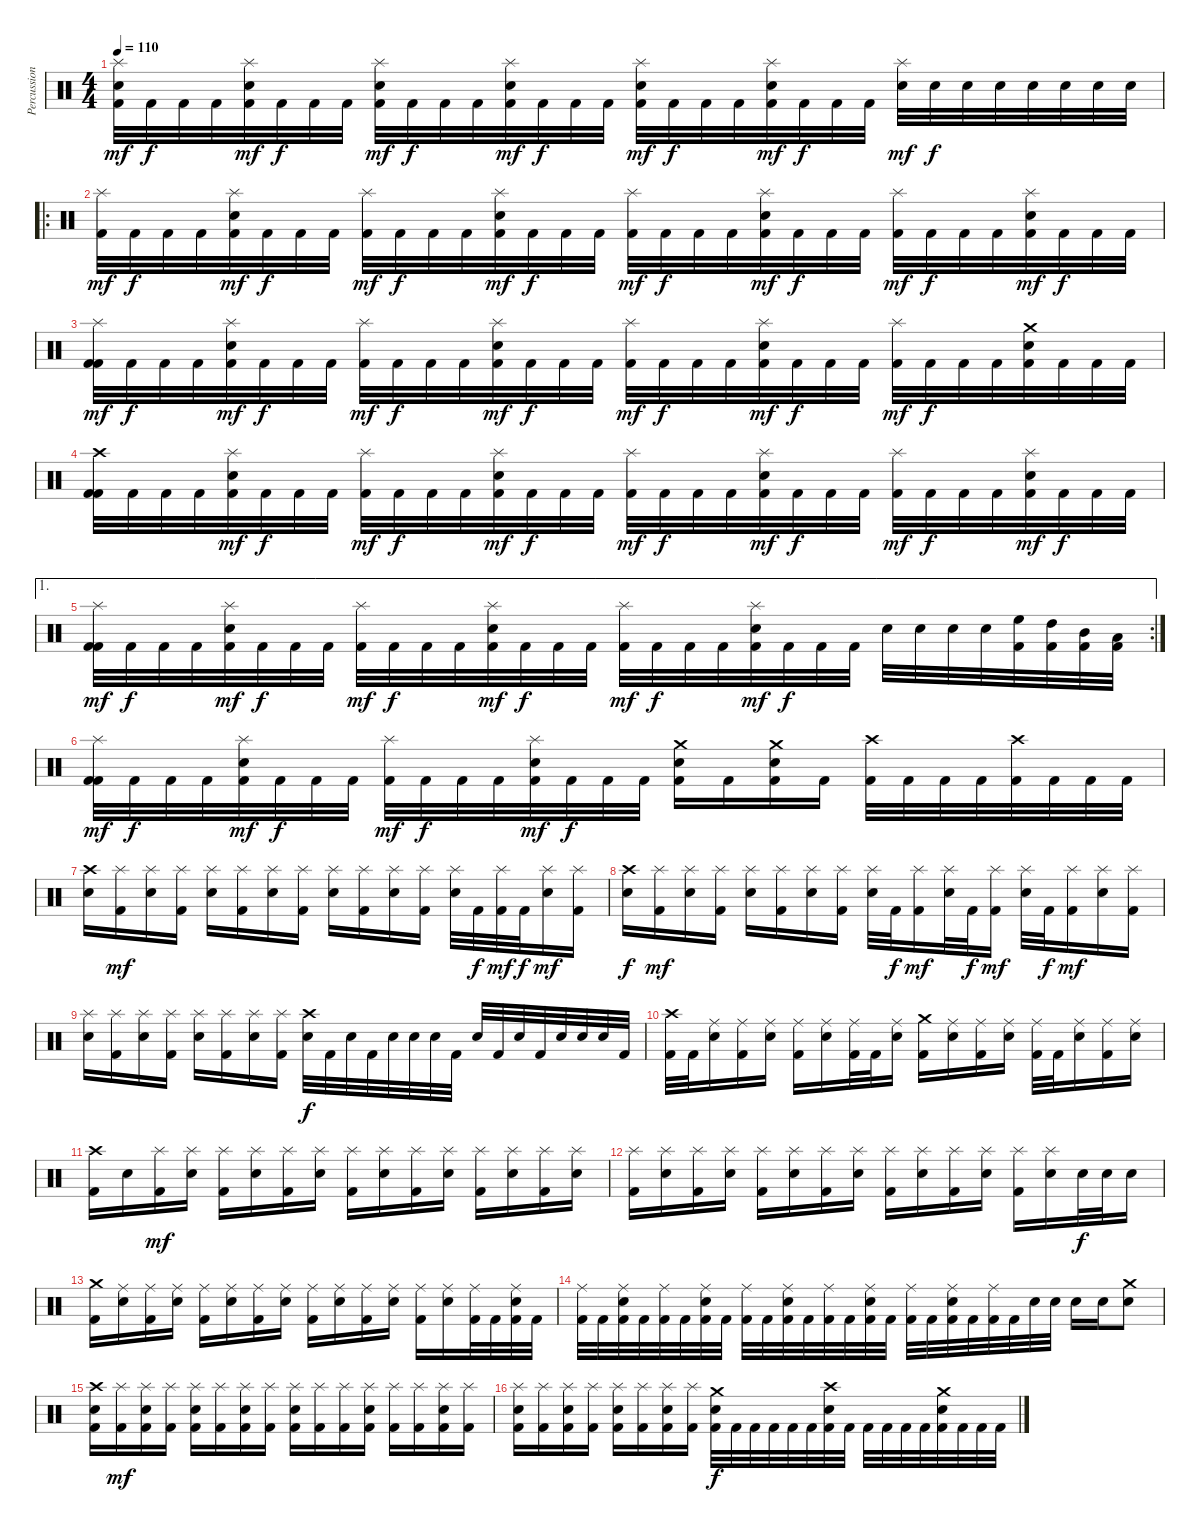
\track ("Percussion" "Percussion") {instrument percussion}
\staff {score}
\articulation defaults
\ts (4 4)
\tempo 110
\clef neutral
\ks c
("Splash (hit)" "Kick (hit) 2" "Snare (hit) 2").32{dy mf} "Kick (hit) 2".32{dy f} "Kick (hit) 2".32 "Kick (hit) 2".32 ("Splash (hit)" "Kick (hit) 2" "Snare (hit) 2").32{dy mf} "Kick (hit) 2".32{dy f} "Kick (hit) 2".32 "Kick (hit) 2".32 ("Splash (hit)" "Kick (hit) 2" "Snare (hit) 2").32{dy mf} "Kick (hit) 2".32{dy f} "Kick (hit) 2".32 "Kick (hit) 2".32 ("Splash (hit)" "Kick (hit) 2" "Snare (hit) 2").32{dy mf} "Kick (hit) 2".32{dy f} "Kick (hit) 2".32 "Kick (hit) 2".32 ("Splash (hit)" "Kick (hit) 2" "Snare (hit) 2").32{dy mf} "Kick (hit) 2".32{dy f} "Kick (hit) 2".32 "Kick (hit) 2".32 ("Splash (hit)" "Kick (hit) 2" "Snare (hit) 2").32{dy mf} "Kick (hit) 2".32{dy f} "Kick (hit) 2".32 "Kick (hit) 2".32 ("Splash (hit)" "Snare (hit) 2").32{dy mf} "Snare (hit) 2".32{dy f} "Snare (hit) 2".32 "Snare (hit) 2".32 "Snare (hit) 2".32 "Snare (hit) 2".32 "Snare (hit) 2".32 "Snare (hit) 2".32 |
\ro
("Splash (hit)" "Kick (hit) 2").32{dy mf} "Kick (hit) 2".32{dy f} "Kick (hit) 2".32 "Kick (hit) 2".32 ("Splash (hit)" "Kick (hit) 2" "Snare (hit) 2").32{dy mf} "Kick (hit) 2".32{dy f} "Kick (hit) 2".32 "Kick (hit) 2".32 ("Splash (hit)" "Kick (hit) 2").32{dy mf} "Kick (hit) 2".32{dy f} "Kick (hit) 2".32 "Kick (hit) 2".32 ("Splash (hit)" "Kick (hit) 2" "Snare (hit) 2").32{dy mf} "Kick (hit) 2".32{dy f} "Kick (hit) 2".32 "Kick (hit) 2".32 ("Splash (hit)" "Kick (hit) 2").32{dy mf} "Kick (hit) 2".32{dy f} "Kick (hit) 2".32 "Kick (hit) 2".32 ("Splash (hit)" "Kick (hit) 2" "Snare (hit) 2").32{dy mf} "Kick (hit) 2".32{dy f} "Kick (hit) 2".32 "Kick (hit) 2".32 ("Splash (hit)" "Kick (hit) 2").32{dy mf} "Kick (hit) 2".32{dy f} "Kick (hit) 2".32 "Kick (hit) 2".32 ("Splash (hit)" "Kick (hit) 2" "Snare (hit) 2").32{dy mf} "Kick (hit) 2".32{dy f} "Kick (hit) 2".32 "Kick (hit) 2".32 |
("Splash (hit)" "Kick (hit) 2" "Kick (hit) 2").32{dy mf} "Kick (hit) 2".32{dy f} "Kick (hit) 2".32 "Kick (hit) 2".32 ("Splash (hit)" "Kick (hit) 2" "Snare (hit) 2").32{dy mf} "Kick (hit) 2".32{dy f} "Kick (hit) 2".32 "Kick (hit) 2".32 ("Splash (hit)" "Kick (hit) 2").32{dy mf} "Kick (hit) 2".32{dy f} "Kick (hit) 2".32 "Kick (hit) 2".32 ("Splash (hit)" "Kick (hit) 2" "Snare (hit) 2").32{dy mf} "Kick (hit) 2".32{dy f} "Kick (hit) 2".32 "Kick (hit) 2".32 ("Splash (hit)" "Kick (hit) 2").32{dy mf} "Kick (hit) 2".32{dy f} "Kick (hit) 2".32 "Kick (hit) 2".32 ("Splash (hit)" "Kick (hit) 2" "Snare (hit) 2").32{dy mf} "Kick (hit) 2".32{dy f} "Kick (hit) 2".32 "Kick (hit) 2".32 ("Splash (hit)" "Kick (hit) 2").32{dy mf} "Kick (hit) 2".32{dy f} "Kick (hit) 2".32 "Kick (hit) 2".32 ("Crash medium (hit)" "Kick (hit) 2" "Snare (hit) 2").32 "Kick (hit) 2".32 "Kick (hit) 2".32 "Kick (hit) 2".32 |
("Crash high (hit)" "Kick (hit) 2" "Kick (hit) 2").32 "Kick (hit) 2".32 "Kick (hit) 2".32 "Kick (hit) 2".32 ("Splash (hit)" "Kick (hit) 2" "Snare (hit) 2").32{dy mf} "Kick (hit) 2".32{dy f} "Kick (hit) 2".32 "Kick (hit) 2".32 ("Splash (hit)" "Kick (hit) 2").32{dy mf} "Kick (hit) 2".32{dy f} "Kick (hit) 2".32 "Kick (hit) 2".32 ("Splash (hit)" "Kick (hit) 2" "Snare (hit) 2").32{dy mf} "Kick (hit) 2".32{dy f} "Kick (hit) 2".32 "Kick (hit) 2".32 ("Splash (hit)" "Kick (hit) 2").32{dy mf} "Kick (hit) 2".32{dy f} "Kick (hit) 2".32 "Kick (hit) 2".32 ("Splash (hit)" "Kick (hit) 2" "Snare (hit) 2").32{dy mf} "Kick (hit) 2".32{dy f} "Kick (hit) 2".32 "Kick (hit) 2".32 ("Splash (hit)" "Kick (hit) 2").32{dy mf} "Kick (hit) 2".32{dy f} "Kick (hit) 2".32 "Kick (hit) 2".32 ("Splash (hit)" "Kick (hit) 2" "Snare (hit) 2").32{dy mf} "Kick (hit) 2".32{dy f} "Kick (hit) 2".32 "Kick (hit) 2".32 |
\ae 1
\rc 2
("Splash (hit)" "Kick (hit) 2" "Kick (hit) 2").32{dy mf} "Kick (hit) 2".32{dy f} "Kick (hit) 2".32 "Kick (hit) 2".32 ("Splash (hit)" "Kick (hit) 2" "Snare (hit) 2").32{dy mf} "Kick (hit) 2".32{dy f} "Kick (hit) 2".32 "Kick (hit) 2".32 ("Splash (hit)" "Kick (hit) 2").32{dy mf} "Kick (hit) 2".32{dy f} "Kick (hit) 2".32 "Kick (hit) 2".32 ("Splash (hit)" "Kick (hit) 2" "Snare (hit) 2").32{dy mf} "Kick (hit) 2".32{dy f} "Kick (hit) 2".32 "Kick (hit) 2".32 ("Splash (hit)" "Kick (hit) 2").32{dy mf} "Kick (hit) 2".32{dy f} "Kick (hit) 2".32 "Kick (hit) 2".32 ("Splash (hit)" "Kick (hit) 2" "Snare (hit) 2").32{dy mf} "Kick (hit) 2".32{dy f} "Kick (hit) 2".32 "Kick (hit) 2".32 "Snare (hit) 2".32 "Snare (hit) 2".32 "Snare (hit) 2".32 "Snare (hit) 2".32 ("High Floor Tom (hit)" "Kick (hit) 2").32 ("High Tom (hit)" "Kick (hit) 2").32 ("Mid Tom (hit)" "Kick (hit) 2").32 ("Low Tom (hit)" "Kick (hit) 2").32 |
("Splash (hit)" "Kick (hit) 2" "Kick (hit) 2").32{dy mf} "Kick (hit) 2".32{dy f} "Kick (hit) 2".32 "Kick (hit) 2".32 ("Splash (hit)" "Kick (hit) 2" "Snare (hit) 2").32{dy mf} "Kick (hit) 2".32{dy f} "Kick (hit) 2".32 "Kick (hit) 2".32 ("Splash (hit)" "Kick (hit) 2").32{dy mf} "Kick (hit) 2".32{dy f} "Kick (hit) 2".32 "Kick (hit) 2".32 ("Splash (hit)" "Kick (hit) 2" "Snare (hit) 2").32{dy mf} "Kick (hit) 2".32{dy f} "Kick (hit) 2".32 "Kick (hit) 2".32 ("Crash medium (hit)" "Snare (hit) 2" "Kick (hit) 2").16 "Kick (hit) 2".16 ("Crash medium (hit)" "Snare (hit) 2" "Kick (hit) 2").16 "Kick (hit) 2".16 ("Crash high (hit)" "Kick (hit) 2").32 "Kick (hit) 2".32 "Kick (hit) 2".32 "Kick (hit) 2".32 ("Crash high (hit)" "Kick (hit) 2").32 "Kick (hit) 2".32 "Kick (hit) 2".32 "Kick (hit) 2".32 |
("Crash high (hit)" "Snare (hit) 2").16 ("Splash (hit)" "Kick (hit) 2").16{dy mf} ("Splash (hit)" "Snare (hit) 2").16 ("Splash (hit)" "Kick (hit) 2").16 ("Splash (hit)" "Snare (hit) 2").16 ("Splash (hit)" "Kick (hit) 2").16 ("Splash (hit)" "Snare (hit) 2").16 ("Splash (hit)" "Kick (hit) 2").16 ("Splash (hit)" "Snare (hit) 2").16 ("Splash (hit)" "Kick (hit) 2").16 ("Splash (hit)" "Snare (hit) 2").16 ("Splash (hit)" "Kick (hit) 2").16 ("Splash (hit)" "Snare (hit) 2").32 "Kick (hit) 2".32{dy f} ("Splash (hit)" "Kick (hit) 2").32{dy mf} "Kick (hit) 2".32{dy f} ("Splash (hit)" "Snare (hit) 2").16{dy mf} ("Splash (hit)" "Kick (hit) 2").16 |
("Crash high (hit)" "Snare (hit) 2").16{dy f} ("Splash (hit)" "Kick (hit) 2").16{dy mf} ("Splash (hit)" "Snare (hit) 2").16 ("Splash (hit)" "Kick (hit) 2").16 ("Splash (hit)" "Snare (hit) 2").16 ("Splash (hit)" "Kick (hit) 2").16 ("Splash (hit)" "Snare (hit) 2").16 ("Splash (hit)" "Kick (hit) 2").16 ("Splash (hit)" "Snare (hit) 2").32 "Kick (hit) 2".32{dy f} ("Splash (hit)" "Kick (hit) 2").16{dy mf} ("Splash (hit)" "Snare (hit) 2").32 "Kick (hit) 2".32{dy f} ("Splash (hit)" "Kick (hit) 2").16{dy mf} ("Splash (hit)" "Snare (hit) 2").32 "Kick (hit) 2".32{dy f} ("Splash (hit)" "Kick (hit) 2").16{dy mf} ("Splash (hit)" "Snare (hit) 2").16 ("Splash (hit)" "Kick (hit) 2").16 |
("Splash (hit)" "Snare (hit) 2").16 ("Splash (hit)" "Kick (hit) 2").16 ("Splash (hit)" "Snare (hit) 2").16 ("Splash (hit)" "Kick (hit) 2").16 ("Splash (hit)" "Snare (hit) 2").16 ("Splash (hit)" "Kick (hit) 2").16 ("Splash (hit)" "Snare (hit) 2").16 ("Splash (hit)" "Kick (hit) 2").16 ("Crash high (hit)" "Snare (hit) 2").32{dy f} "Kick (hit) 2".32 "Snare (hit) 2".32 "Kick (hit) 2".32 "Snare (hit) 2".32 "Snare (hit) 2".32 "Snare (hit) 2".32 "Kick (hit) 2".32 "Snare (hit) 2".32 "Kick (hit) 2".32 "Snare (hit) 2".32 "Kick (hit) 2".32 "Snare (hit) 2".32 "Snare (hit) 2".32 "Snare (hit) 2".32 "Kick (hit) 2".32 |
("Crash high (hit)" "Kick (hit) 2").32 "Kick (hit) 2".32 ("Ride (middle)" "Snare (hit) 2").16 ("Ride (middle)" "Kick (hit) 2").16 ("Ride (middle)" "Snare (hit) 2").16 ("Ride (middle)" "Kick (hit) 2").16 ("Ride (middle)" "Snare (hit) 2").16 ("Ride (middle)" "Kick (hit) 2").32 "Kick (hit) 2".32 ("Ride (middle)" "Snare (hit) 2").16 ("Crash medium (hit)" "Kick (hit) 2").16 ("Ride (middle)" "Snare (hit) 2").16 ("Ride (middle)" "Kick (hit) 2").16 ("Ride (middle)" "Snare (hit) 2").16 ("Ride (middle)" "Kick (hit) 2").32 "Kick (hit) 2".32 ("Ride (middle)" "Snare (hit) 2").16 ("Ride (middle)" "Kick (hit) 2").16 ("Ride (middle)" "Snare (hit) 2").16 |
("Crash high (hit)" "Kick (hit) 2").16 "Snare (hit) 2".16 ("Splash (hit)" "Kick (hit) 2").16{dy mf} ("Splash (hit)" "Snare (hit) 2").16 ("Splash (hit)" "Kick (hit) 2").16 ("Splash (hit)" "Snare (hit) 2").16 ("Splash (hit)" "Kick (hit) 2").16 ("Splash (hit)" "Snare (hit) 2").16 ("Splash (hit)" "Kick (hit) 2").16 ("Splash (hit)" "Snare (hit) 2").16 ("Splash (hit)" "Kick (hit) 2").16 ("Splash (hit)" "Snare (hit) 2").16 ("Splash (hit)" "Kick (hit) 2").16 ("Splash (hit)" "Snare (hit) 2").16 ("Splash (hit)" "Kick (hit) 2").16 ("Splash (hit)" "Snare (hit) 2").16 |
("Splash (hit)" "Kick (hit) 2").16 ("Splash (hit)" "Snare (hit) 2").16 ("Splash (hit)" "Kick (hit) 2").16 ("Splash (hit)" "Snare (hit) 2").16 ("Splash (hit)" "Kick (hit) 2").16 ("Splash (hit)" "Snare (hit) 2").16 ("Splash (hit)" "Kick (hit) 2").16 ("Splash (hit)" "Snare (hit) 2").16 ("Splash (hit)" "Kick (hit) 2").16 ("Splash (hit)" "Snare (hit) 2").16 ("Splash (hit)" "Kick (hit) 2").16 ("Splash (hit)" "Snare (hit) 2").16 ("Splash (hit)" "Kick (hit) 2").16 ("Splash (hit)" "Snare (hit) 2").16 "Snare (hit) 2".32{dy f} "Snare (hit) 2".32 "Snare (hit) 2".16 |
("Crash medium (hit)" "Kick (hit) 2").16 ("Ride (middle)" "Snare (hit) 2").16 ("Ride (middle)" "Kick (hit) 2").16 ("Ride (middle)" "Snare (hit) 2").16 ("Ride (middle)" "Kick (hit) 2").16 ("Ride (middle)" "Snare (hit) 2").16 ("Ride (middle)" "Kick (hit) 2").16 ("Ride (middle)" "Snare (hit) 2").16 ("Ride (middle)" "Kick (hit) 2").16 ("Ride (middle)" "Snare (hit) 2").16 ("Ride (middle)" "Kick (hit) 2").16 ("Ride (middle)" "Snare (hit) 2").16 ("Ride (middle)" "Kick (hit) 2").16 ("Ride (middle)" "Snare (hit) 2").16 ("Ride (middle)" "Kick (hit) 2").32 "Kick (hit) 2".32 ("Ride (middle)" "Snare (hit) 2" "Kick (hit) 2").32 "Kick (hit) 2".32 |
("Ride (middle)" "Kick (hit) 2").32 "Kick (hit) 2".32 ("Ride (middle)" "Snare (hit) 2" "Kick (hit) 2").32 "Kick (hit) 2".32 ("Ride (middle)" "Kick (hit) 2").32 "Kick (hit) 2".32 ("Ride (middle)" "Snare (hit) 2" "Kick (hit) 2").32 "Kick (hit) 2".32 ("Ride (middle)" "Kick (hit) 2").32 "Kick (hit) 2".32 ("Ride (middle)" "Snare (hit) 2" "Kick (hit) 2").32 "Kick (hit) 2".32 ("Ride (middle)" "Kick (hit) 2").32 "Kick (hit) 2".32 ("Ride (middle)" "Snare (hit) 2" "Kick (hit) 2").32 "Kick (hit) 2".32 ("Ride (middle)" "Kick (hit) 2").32 "Kick (hit) 2".32 ("Ride (middle)" "Snare (hit) 2" "Kick (hit) 2").32 "Kick (hit) 2".32 ("Ride (middle)" "Kick (hit) 2").32 "Kick (hit) 2".32 "Snare (hit) 2".32 "Snare (hit) 2".32 "Snare (hit) 2".16 "Snare (hit) 2".16 ("Crash medium (hit)" "Snare (hit) 2").8 |
\section ("" "")
("Crash high (hit)" "Snare (hit) 2" "Kick (hit) 2").16 ("Splash (hit)" "Kick (hit) 2").16{dy mf} ("Splash (hit)" "Snare (hit) 2" "Kick (hit) 2").16 ("Splash (hit)" "Kick (hit) 2").16 ("Splash (hit)" "Snare (hit) 2" "Kick (hit) 2").16 ("Splash (hit)" "Kick (hit) 2").16 ("Splash (hit)" "Snare (hit) 2" "Kick (hit) 2").16 ("Splash (hit)" "Kick (hit) 2").16 ("Splash (hit)" "Snare (hit) 2" "Kick (hit) 2").16 ("Splash (hit)" "Kick (hit) 2").16 ("Splash (hit)" "Kick (hit) 2").16 ("Splash (hit)" "Snare (hit) 2" "Kick (hit) 2").16 ("Splash (hit)" "Kick (hit) 2").16 ("Splash (hit)" "Kick (hit) 2").16 ("Splash (hit)" "Snare (hit) 2" "Kick (hit) 2").16 ("Splash (hit)" "Kick (hit) 2").16 |
("Splash (hit)" "Snare (hit) 2" "Kick (hit) 2").16 ("Splash (hit)" "Kick (hit) 2").16 ("Splash (hit)" "Snare (hit) 2" "Kick (hit) 2").16 ("Splash (hit)" "Kick (hit) 2").16 ("Splash (hit)" "Snare (hit) 2" "Kick (hit) 2").16 ("Splash (hit)" "Kick (hit) 2").16 ("Splash (hit)" "Snare (hit) 2" "Kick (hit) 2").16 ("Splash (hit)" "Kick (hit) 2").16 ("Crash medium (hit)" "Snare (hit) 2" "Kick (hit) 2").32{dy f} "Kick (hit) 2".32 "Kick (hit) 2".32 "Kick (hit) 2".32 "Kick (hit) 2".32 "Kick (hit) 2".32 ("Crash high (hit)" "Snare (hit) 2" "Kick (hit) 2").32 "Kick (hit) 2".32 "Kick (hit) 2".32 "Kick (hit) 2".32 "Kick (hit) 2".32 "Kick (hit) 2".32 ("Crash medium (hit)" "Snare (hit) 2" "Kick (hit) 2").32 "Kick (hit) 2".32 "Kick (hit) 2".32 "Kick (hit) 2".32
